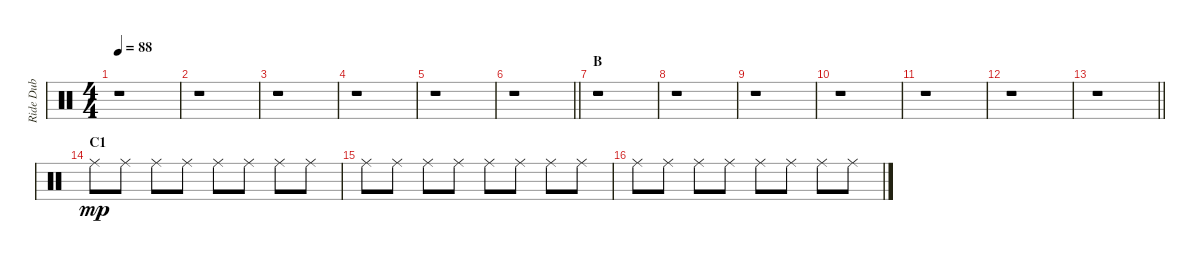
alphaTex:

\track ("Ride Dub" "Ride Dub") {instrument percussion}
\staff {score}
\articulation defaults
\ts (4 4)
\tempo 88
\clef neutral
\ks c
r.1{dy mp} |
r.1 |
r.1 |
r.1 |
r.1 |
\barLineRight lightlight
r.1 |
\section ("" "B")
r.1 |
r.1 |
r.1 |
r.1 |
r.1 |
r.1 |
\barLineRight lightlight
r.1 |
\section ("" "C1")
"Ride (middle)".8 "Ride (middle)".8 "Ride (middle)".8 "Ride (middle)".8 "Ride (middle)".8 "Ride (middle)".8 "Ride (middle)".8 "Ride (middle)".8 |
"Ride (middle)".8 "Ride (middle)".8 "Ride (middle)".8 "Ride (middle)".8 "Ride (middle)".8 "Ride (middle)".8 "Ride (middle)".8 "Ride (middle)".8 |
"Ride (middle)".8 "Ride (middle)".8 "Ride (middle)".8 "Ride (middle)".8 "Ride (middle)".8 "Ride (middle)".8 "Ride (middle)".8 "Ride (middle)".8
